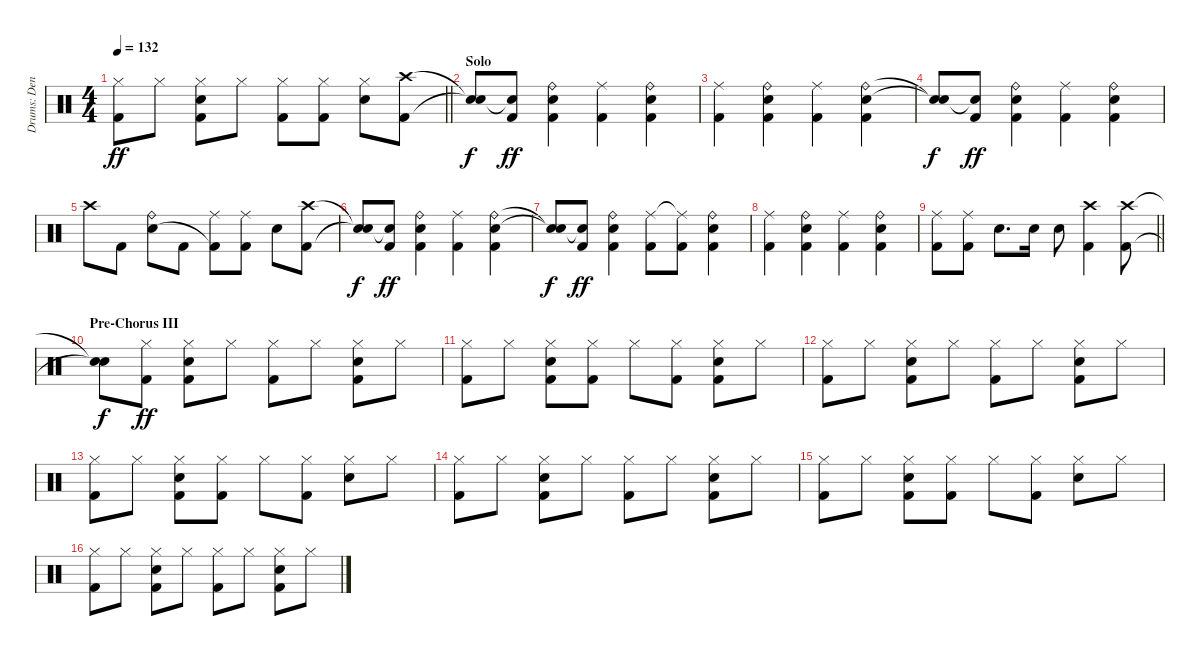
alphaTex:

\track ("Drums: Denny" "Drums: Den") {instrument percussion}
\staff {score}
\articulation defaults
\ts (4 4)
\tempo 132
\clef neutral
\barLineRight lightlight
\ks c
("Hi-Hat (closed)" "Kick (hit) 2").8{dy ff} "Hi-Hat (closed)".8 ("Hi-Hat (closed)" "Electric Snare (hit)" "Kick (hit) 2").8 "Hi-Hat (closed)".8 ("Hi-Hat (closed)" "Kick (hit) 2").8 ("Hi-Hat (closed)" "Kick (hit) 2").8 ("Hi-Hat (closed)" "Electric Snare (hit)").8 ("Crash high (hit)" "Kick (hit) 2").8 |
\section ("" "Solo")
("Snare (hit)"{t} "Snare (hit)"{t}).8{dy f} ("Snare (hit)"{t} "Kick (hit) 2").8{dy ff} ("Ride (bell)" "Electric Snare (hit)" "Kick (hit) 2").4 ("Ride (middle)" "Kick (hit) 2").4 ("Ride (bell)" "Electric Snare (hit)" "Kick (hit) 2").4 |
("Ride (middle)" "Kick (hit) 2").4 ("Ride (bell)" "Electric Snare (hit)" "Kick (hit) 2").4 ("Ride (middle)" "Kick (hit) 2").4 ("Ride (bell)" "Electric Snare (hit)" "Kick (hit) 2").4 |
("Snare (hit)"{t} "Snare (hit)"{t}).8{dy f} ("Snare (hit)"{t} "Kick (hit) 2").8{dy ff} ("Ride (bell)" "Electric Snare (hit)" "Kick (hit) 2").4 ("Ride (middle)" "Kick (hit) 2").4 ("Ride (bell)" "Electric Snare (hit)" "Kick (hit) 2").4 |
"Crash high (hit)".8 "Kick (hit) 2".8 ("Ride (bell)" "Electric Snare (hit)").8 "Kick (hit) 2".8 ("Ride (middle)" "Kick (hit) 2"{t}).8 ("Ride (middle)" "Kick (hit) 2").8 "Electric Snare (hit)".8 ("Crash high (hit)" "Kick (hit) 2").8 |
("Snare (hit)"{t} "Snare (hit)"{t}).8{dy f} ("Snare (hit)"{t} "Kick (hit) 2").8{dy ff} ("Ride (bell)" "Electric Snare (hit)" "Kick (hit) 2").4 ("Ride (middle)" "Kick (hit) 2").4 ("Ride (bell)" "Electric Snare (hit)" "Kick (hit) 2").4 |
("Snare (hit)"{t} "Snare (hit)"{t}).8{dy f} ("Snare (hit)"{t} "Kick (hit) 2").8{dy ff} ("Ride (bell)" "Electric Snare (hit)" "Kick (hit) 2").4 ("Ride (middle)" "Kick (hit) 2").8 ("Ride (middle)"{t} "Kick (hit) 2").8 ("Ride (bell)" "Electric Snare (hit)" "Kick (hit) 2").4 |
("Ride (middle)" "Kick (hit) 2").4 ("Ride (bell)" "Electric Snare (hit)" "Kick (hit) 2").4 ("Ride (middle)" "Kick (hit) 2").4 ("Ride (bell)" "Electric Snare (hit)" "Kick (hit) 2").4 |
\barLineRight lightlight
("Ride (middle)" "Kick (hit) 2").8 ("Ride (middle)" "Kick (hit) 2").8 "Electric Snare (hit)".8{d} "Electric Snare (hit)".16 "Electric Snare (hit)".8 ("Crash high (hit)" "Kick (hit) 2").4 ("Crash high (hit)" "Kick (hit) 2").8 |
\section ("" "Pre-Chorus III")
("Snare (hit)"{t} "Snare (hit)"{t}).8{dy f} ("Hi-Hat (closed)" "Kick (hit) 2").8{dy ff} ("Hi-Hat (closed)" "Electric Snare (hit)" "Kick (hit) 2").8 "Hi-Hat (closed)".8 ("Hi-Hat (closed)" "Kick (hit) 2").8 "Hi-Hat (closed)".8 ("Hi-Hat (closed)" "Electric Snare (hit)" "Kick (hit) 2").8 "Hi-Hat (closed)".8 |
("Hi-Hat (closed)" "Kick (hit) 2").8 "Hi-Hat (closed)".8 ("Hi-Hat (closed)" "Electric Snare (hit)" "Kick (hit) 2").8 ("Hi-Hat (closed)" "Kick (hit) 2").8 "Hi-Hat (closed)".8 ("Hi-Hat (closed)" "Kick (hit) 2").8 ("Hi-Hat (closed)" "Electric Snare (hit)" "Kick (hit) 2").8 "Hi-Hat (closed)".8 |
("Hi-Hat (closed)" "Kick (hit) 2").8 "Hi-Hat (closed)".8 ("Hi-Hat (closed)" "Electric Snare (hit)" "Kick (hit) 2").8 "Hi-Hat (closed)".8 ("Hi-Hat (closed)" "Kick (hit) 2").8 "Hi-Hat (closed)".8 ("Hi-Hat (closed)" "Electric Snare (hit)" "Kick (hit) 2").8 "Hi-Hat (closed)".8 |
("Hi-Hat (closed)" "Kick (hit) 2").8 "Hi-Hat (closed)".8 ("Hi-Hat (closed)" "Electric Snare (hit)" "Kick (hit) 2").8 ("Hi-Hat (closed)" "Kick (hit) 2").8 "Hi-Hat (closed)".8 ("Hi-Hat (closed)" "Kick (hit) 2").8 ("Hi-Hat (closed)" "Electric Snare (hit)").8 "Hi-Hat (closed)".8 |
("Hi-Hat (closed)" "Kick (hit) 2").8 "Hi-Hat (closed)".8 ("Hi-Hat (closed)" "Electric Snare (hit)" "Kick (hit) 2").8 "Hi-Hat (closed)".8 ("Hi-Hat (closed)" "Kick (hit) 2").8 "Hi-Hat (closed)".8 ("Hi-Hat (closed)" "Electric Snare (hit)" "Kick (hit) 2").8 "Hi-Hat (closed)".8 |
("Hi-Hat (closed)" "Kick (hit) 2").8 "Hi-Hat (closed)".8 ("Hi-Hat (closed)" "Electric Snare (hit)" "Kick (hit) 2").8 ("Hi-Hat (closed)" "Kick (hit) 2").8 "Hi-Hat (closed)".8 ("Hi-Hat (closed)" "Kick (hit) 2").8 ("Hi-Hat (closed)" "Electric Snare (hit)").8 "Hi-Hat (closed)".8 |
("Hi-Hat (closed)" "Kick (hit) 2").8 "Hi-Hat (closed)".8 ("Hi-Hat (closed)" "Electric Snare (hit)" "Kick (hit) 2").8 "Hi-Hat (closed)".8 ("Hi-Hat (closed)" "Kick (hit) 2").8 "Hi-Hat (closed)".8 ("Hi-Hat (closed)" "Electric Snare (hit)" "Kick (hit) 2").8 "Hi-Hat (closed)".8
